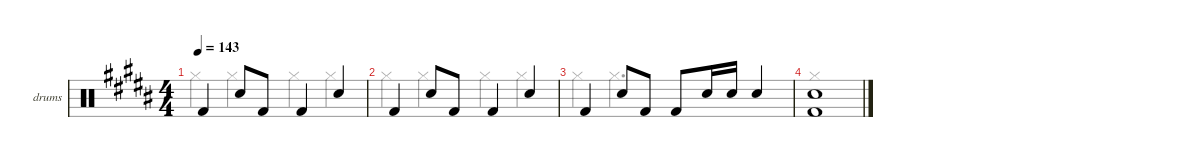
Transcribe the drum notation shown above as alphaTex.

\defaultSystemsLayout 4
\hideDynamics
\bracketExtendMode nobrackets
\firstSystemTrackNameOrientation horizontal
\otherSystemsTrackNameOrientation horizontal
\track ("Drumkit" "drums") {instrument percussion}
\staff {score}
\articulation defaults
\voice
\ts (4 4)
\tempo 143
\clef neutral
\ks g#minor "Kick (hit) 2"{acc forcenatural}.4{dy mf beam Up} "Snare (hit) 2"{acc forcenatural}.8{beam Up} "Kick (hit) 2"{acc forcenatural}.8{beam Up} "Kick (hit) 2"{acc forcenatural}.4{beam Up} "Snare (hit) 2"{acc forcenatural}.4{beam Up}
|
"Kick (hit) 2"{acc forcenatural}.4{beam Up} "Snare (hit) 2"{acc forcenatural}.8{beam Up} "Kick (hit) 2"{acc forcenatural}.8{beam Up} "Kick (hit) 2"{acc forcenatural}.4{beam Up} "Snare (hit) 2"{acc forcenatural}.4{beam Up} |
"Kick (hit) 2"{acc forcenatural}.4{beam Up} "Snare (hit) 2"{acc forcenatural}.8{beam Up} "Kick (hit) 2"{acc forcenatural}.8{beam Up} "Kick (hit) 2"{acc forcenatural}.8{beam Up} "Snare (hit) 2"{acc forcenatural}.16{beam Up} "Snare (hit) 2"{acc forcenatural}.16{beam Up} "Snare (hit) 2"{acc forcenatural}.4{beam Up} |
("Kick (hit) 2"{acc forcenatural} "Snare (hit) 2"{acc forcenatural}).1{beam Up}
\voice
\clef neutral
\ottava regular
\simile none
\ks g#minor "Hi-Hat (closed)"{acc forcenatural}.4{dy mf beam Down} "Hi-Hat (closed)"{acc forcenatural}.4{beam Down} "Hi-Hat (closed)"{acc forcenatural}.4{beam Down} "Hi-Hat (closed)"{acc forcenatural}.4{beam Down}
|
"Hi-Hat (closed)"{acc forcenatural}.4{beam Down} "Hi-Hat (closed)"{acc forcenatural}.4{beam Down} "Hi-Hat (closed)"{acc forcenatural}.4{beam Down} "Hi-Hat (closed)"{acc forcenatural}.4{beam Down} |
"Hi-Hat (closed)"{acc forcenatural}.4{beam Down} "Hi-Hat (closed)"{acc forcenatural}.2{d beam Down} |
"Hi-Hat (closed)"{acc forcenatural}.1{beam Down}
